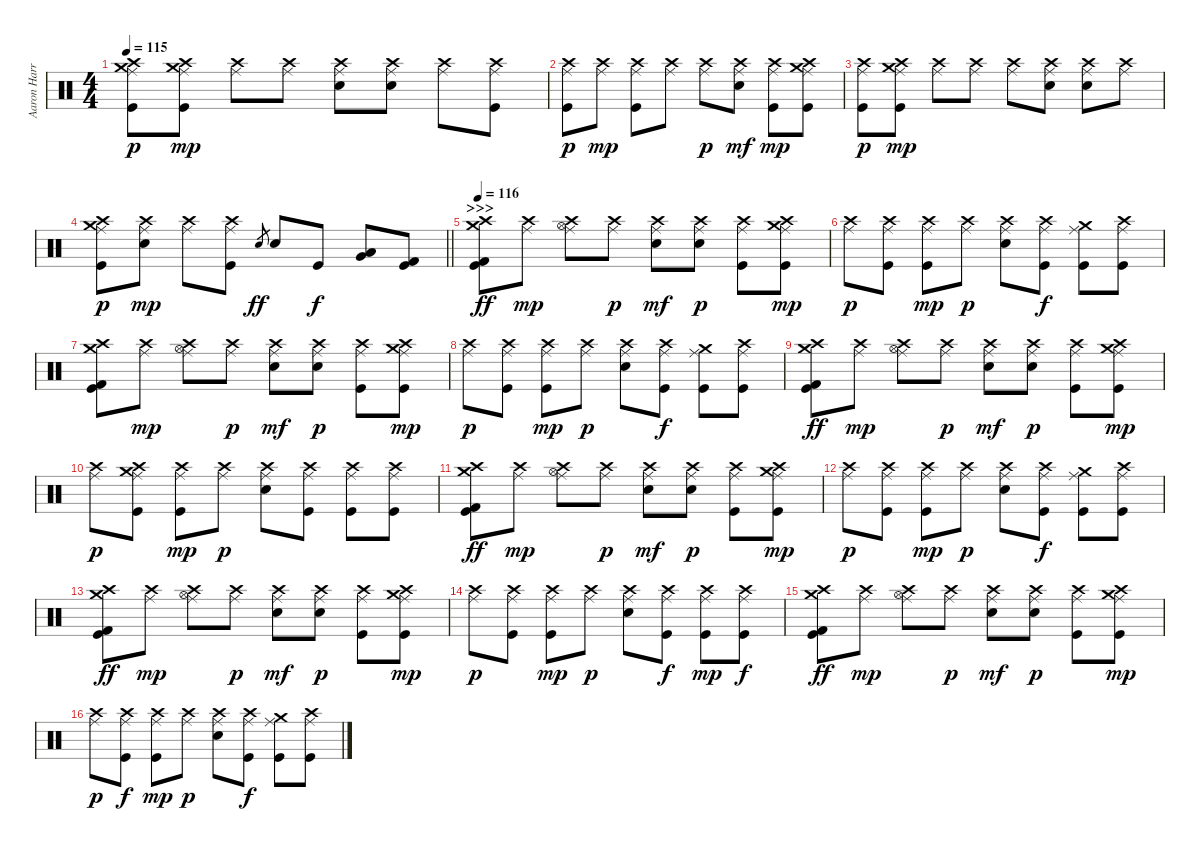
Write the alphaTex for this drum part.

\track ("Aaron Harris" "Aaron Harr") {instrument percussion}
\staff {score}
\articulation defaults
\ts (4 4)
\tempo 115
\clef neutral
\ks c
("Crash medium (hit)" "Crash high (hit)" "Ride (middle)" "Kick (hit)").8{dy p} ("Crash medium (hit)" "Crash high (hit)" "Ride (middle)" "Kick (hit)").8{dy mp} ("Crash high (hit)" "Ride (middle)").8 ("Crash high (hit)" "Ride (middle)").8 ("Crash high (hit)" "Ride (middle)" "Electric Snare (hit)").8 ("Crash high (hit)" "Ride (middle)" "Electric Snare (hit)").8 ("Crash high (hit)" "Ride (middle)").8 ("Crash high (hit)" "Ride (middle)" "Kick (hit)").8 |
("Crash high (hit)" "Ride (middle)" "Kick (hit)").8{dy p} ("Crash high (hit)" "Ride (middle)").8{dy mp} ("Crash high (hit)" "Ride (middle)" "Kick (hit)").8 ("Crash high (hit)" "Ride (middle)").8 ("Crash high (hit)" "Ride (middle)").8{dy p} ("Crash high (hit)" "Ride (middle)" "Electric Snare (hit)").8{dy mf} ("Crash high (hit)" "Ride (middle)" "Kick (hit)").8{dy mp} ("Crash medium (hit)" "Crash high (hit)" "Ride (middle)" "Kick (hit)").8 |
("Crash high (hit)" "Ride (middle)" "Kick (hit)").8{dy p} ("Crash medium (hit)" "Crash high (hit)" "Ride (middle)" "Kick (hit)").8{dy mp} ("Crash high (hit)" "Ride (middle)").8 ("Crash high (hit)" "Ride (middle)").8 ("Crash high (hit)" "Ride (middle)").8 ("Crash high (hit)" "Ride (middle)" "Electric Snare (hit)").8 ("Crash high (hit)" "Ride (middle)" "Electric Snare (hit)").8 ("Crash high (hit)" "Ride (middle)").8 |
\barLineRight lightlight
("Crash medium (hit)" "Crash high (hit)" "Ride (middle)" "Kick (hit)").8{dy p} ("Crash high (hit)" "Ride (middle)" "Electric Snare (hit)").8{dy mp} ("Crash high (hit)" "Ride (middle)").8 ("Crash high (hit)" "Ride (middle)" "Kick (hit)").8 "Electric Snare (hit)".8{gr dy ff} "Electric Snare (hit)".8 "Kick (hit)".8{dy f} ("Very Low Tom (hit)" "Low Floor Tom (hit)").8 ("Kick (hit) 2" "Kick (hit)").8 |
\section ("" ">>>")
\tempo 116
("Crash medium (hit)" "Crash high (hit)" "Kick (hit) 2" "Kick (hit)").8{dy ff} ("Crash high (hit)" "Ride (middle)").8{dy mp} ("Crash high (hit)" "Hi-Hat (open)" "Ride (middle)").8 ("Crash high (hit)" "Ride (middle)").8{dy p} ("Crash high (hit)" "Ride (middle)" "Electric Snare (hit)").8{dy mf} ("Crash high (hit)" "Ride (middle)" "Electric Snare (hit)").8{dy p} ("Crash high (hit)" "Ride (middle)" "Kick (hit)").8 ("Crash medium (hit)" "Crash high (hit)" "Ride (middle)" "Kick (hit)").8{dy mp} |
("Crash high (hit)" "Ride (middle)").8{dy p} ("Crash high (hit)" "Ride (middle)" "Kick (hit)").8 ("Crash high (hit)" "Ride (middle)" "Kick (hit)").8{dy mp} ("Crash high (hit)" "Ride (middle)").8{dy p} ("Crash high (hit)" "Ride (middle)" "Electric Snare (hit)").8 ("Crash high (hit)" "Ride (middle)" "Kick (hit)").8{dy f} ("Crash medium (hit)" "Ride (middle)" "Kick (hit)").8 ("Crash high (hit)" "Ride (middle)" "Kick (hit)").8 |
("Crash medium (hit)" "Crash high (hit)" "Kick (hit) 2" "Kick (hit)").8 ("Crash high (hit)" "Ride (middle)").8{dy mp} ("Crash high (hit)" "Hi-Hat (open)" "Ride (middle)").8 ("Crash high (hit)" "Ride (middle)").8{dy p} ("Crash high (hit)" "Ride (middle)" "Electric Snare (hit)").8{dy mf} ("Crash high (hit)" "Ride (middle)" "Electric Snare (hit)").8{dy p} ("Crash high (hit)" "Ride (middle)" "Kick (hit)").8 ("Crash medium (hit)" "Crash high (hit)" "Ride (middle)" "Kick (hit)").8{dy mp} |
("Crash high (hit)" "Ride (middle)").8{dy p} ("Crash high (hit)" "Ride (middle)" "Kick (hit)").8 ("Crash high (hit)" "Ride (middle)" "Kick (hit)").8{dy mp} ("Crash high (hit)" "Ride (middle)").8{dy p} ("Crash high (hit)" "Ride (middle)" "Electric Snare (hit)").8 ("Crash high (hit)" "Ride (middle)" "Kick (hit)").8{dy f} ("Crash medium (hit)" "Ride (middle)" "Kick (hit)").8 ("Crash high (hit)" "Ride (middle)" "Kick (hit)").8 |
("Crash medium (hit)" "Crash high (hit)" "Kick (hit) 2" "Kick (hit)").8{dy ff} ("Crash high (hit)" "Ride (middle)").8{dy mp} ("Crash high (hit)" "Hi-Hat (open)" "Ride (middle)").8 ("Crash high (hit)" "Ride (middle)").8{dy p} ("Crash high (hit)" "Ride (middle)" "Electric Snare (hit)").8{dy mf} ("Crash high (hit)" "Ride (middle)" "Electric Snare (hit)").8{dy p} ("Crash high (hit)" "Ride (middle)" "Kick (hit)").8 ("Crash medium (hit)" "Crash high (hit)" "Ride (middle)" "Kick (hit)").8{dy mp} |
("Crash high (hit)" "Ride (middle)").8{dy p} ("Crash medium (hit)" "Crash high (hit)" "Ride (middle)" "Kick (hit)").8 ("Crash high (hit)" "Ride (middle)" "Kick (hit)").8{dy mp} ("Crash high (hit)" "Ride (middle)").8{dy p} ("Crash high (hit)" "Ride (middle)" "Electric Snare (hit)").8 ("Crash high (hit)" "Ride (middle)" "Kick (hit)").8 ("Crash high (hit)" "Ride (middle)" "Kick (hit)").8 ("Crash high (hit)" "Ride (middle)" "Kick (hit)").8 |
("Crash medium (hit)" "Crash high (hit)" "Kick (hit) 2" "Kick (hit)").8{dy ff} ("Crash high (hit)" "Ride (middle)").8{dy mp} ("Crash high (hit)" "Hi-Hat (open)" "Ride (middle)").8 ("Crash high (hit)" "Ride (middle)").8{dy p} ("Crash high (hit)" "Ride (middle)" "Electric Snare (hit)").8{dy mf} ("Crash high (hit)" "Ride (middle)" "Electric Snare (hit)").8{dy p} ("Crash high (hit)" "Ride (middle)" "Kick (hit)").8 ("Crash medium (hit)" "Crash high (hit)" "Ride (middle)" "Kick (hit)").8{dy mp} |
("Crash high (hit)" "Ride (middle)").8{dy p} ("Crash high (hit)" "Ride (middle)" "Kick (hit)").8 ("Crash high (hit)" "Ride (middle)" "Kick (hit)").8{dy mp} ("Crash high (hit)" "Ride (middle)").8{dy p} ("Crash high (hit)" "Ride (middle)" "Electric Snare (hit)").8 ("Crash high (hit)" "Ride (middle)" "Kick (hit)").8{dy f} ("Crash medium (hit)" "Ride (middle)" "Kick (hit)").8 ("Crash high (hit)" "Ride (middle)" "Kick (hit)").8 |
("Crash medium (hit)" "Crash high (hit)" "Kick (hit) 2" "Kick (hit)").8{dy ff} ("Crash high (hit)" "Ride (middle)").8{dy mp} ("Crash high (hit)" "Hi-Hat (open)" "Ride (middle)").8 ("Crash high (hit)" "Ride (middle)").8{dy p} ("Crash high (hit)" "Ride (middle)" "Electric Snare (hit)").8{dy mf} ("Crash high (hit)" "Ride (middle)" "Electric Snare (hit)").8{dy p} ("Crash high (hit)" "Ride (middle)" "Kick (hit)").8 ("Crash medium (hit)" "Crash high (hit)" "Ride (middle)" "Kick (hit)").8{dy mp} |
("Crash high (hit)" "Ride (middle)").8{dy p} ("Crash high (hit)" "Ride (middle)" "Kick (hit)").8 ("Crash high (hit)" "Ride (middle)" "Kick (hit)").8{dy mp} ("Crash high (hit)" "Ride (middle)").8{dy p} ("Crash high (hit)" "Ride (middle)" "Electric Snare (hit)").8 ("Crash high (hit)" "Ride (middle)" "Kick (hit)").8{dy f} ("Crash high (hit)" "Ride (middle)" "Kick (hit)").8{dy mp} ("Crash high (hit)" "Ride (middle)" "Kick (hit)").8{dy f} |
("Crash medium (hit)" "Crash high (hit)" "Kick (hit) 2" "Kick (hit)").8{dy ff} ("Crash high (hit)" "Ride (middle)").8{dy mp} ("Crash high (hit)" "Hi-Hat (open)" "Ride (middle)").8 ("Crash high (hit)" "Ride (middle)").8{dy p} ("Crash high (hit)" "Ride (middle)" "Electric Snare (hit)").8{dy mf} ("Crash high (hit)" "Ride (middle)" "Electric Snare (hit)").8{dy p} ("Crash high (hit)" "Ride (middle)" "Kick (hit)").8 ("Crash medium (hit)" "Crash high (hit)" "Ride (middle)" "Kick (hit)").8{dy mp} |
("Crash high (hit)" "Ride (middle)").8{dy p} ("Crash high (hit)" "Ride (middle)" "Kick (hit)").8{dy f} ("Crash high (hit)" "Ride (middle)" "Kick (hit)").8{dy mp} ("Crash high (hit)" "Ride (middle)").8{dy p} ("Crash high (hit)" "Ride (middle)" "Electric Snare (hit)").8 ("Crash high (hit)" "Ride (middle)" "Kick (hit)").8{dy f} ("Crash medium (hit)" "Ride (middle)" "Kick (hit)").8 ("Crash high (hit)" "Ride (middle)" "Kick (hit)").8
